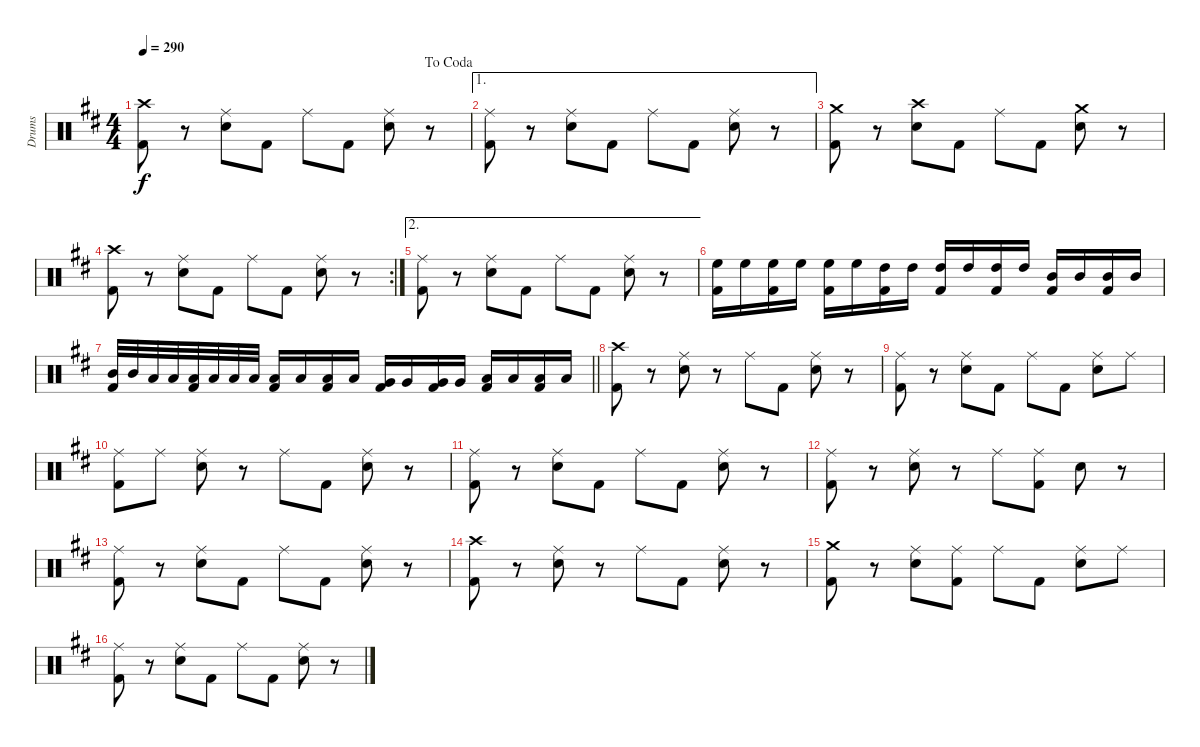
\track ("Drums" "Drums") {instrument percussion}
\staff {score}
\articulation defaults
\ts (4 4)
\jump dacoda
\tempo 290
\clef neutral
\ks d
("Crash high (hit)" "Kick (hit) 2").8{dy f} r.8 ("Ride (middle)" "Electric Snare (hit)").8 "Kick (hit) 2".8 "Ride (middle)".8 "Kick (hit) 2".8 ("Ride (middle)" "Electric Snare (hit)").8 r.8 |
\ae 1
("Ride (middle)" "Kick (hit) 2").8 r.8 ("Ride (middle)" "Electric Snare (hit)").8 "Kick (hit) 2".8 "Ride (middle)".8 "Kick (hit) 2".8 ("Ride (middle)" "Electric Snare (hit)").8 r.8 |
("Crash medium (hit)" "Kick (hit) 2").8 r.8 ("Crash high (hit)" "Electric Snare (hit)").8 "Kick (hit) 2".8 "Ride (middle)".8 "Kick (hit) 2".8 ("Crash medium (hit)" "Electric Snare (hit)").8 r.8 |
\rc 2
("Crash high (hit)" "Kick (hit) 2").8 r.8 ("Ride (middle)" "Electric Snare (hit)").8 "Kick (hit) 2".8 "Ride (middle)".8 "Kick (hit) 2".8 ("Ride (middle)" "Electric Snare (hit)").8 r.8 |
\ae 2
("Ride (middle)" "Kick (hit) 2").8 r.8 ("Ride (middle)" "Electric Snare (hit)").8 "Kick (hit) 2".8 "Ride (middle)".8 "Kick (hit) 2".8 ("Ride (middle)" "Electric Snare (hit)").8 r.8 |
("High Floor Tom (hit)" "Kick (hit) 2").16 "High Floor Tom (hit)".16 ("High Floor Tom (hit)" "Kick (hit) 2").16 "High Floor Tom (hit)".16 ("High Floor Tom (hit)" "Kick (hit) 2").16 "High Floor Tom (hit)".16 ("High Tom (hit)" "Kick (hit) 2").16 "High Tom (hit)".16 ("High Tom (hit)" "Kick (hit) 2").16 "High Tom (hit)".16 ("High Tom (hit)" "Kick (hit) 2").16 "High Tom (hit)".16 ("Mid Tom (hit)" "Kick (hit) 2").16 "Mid Tom (hit)".16 ("Mid Tom (hit)" "Kick (hit) 2").16 "Mid Tom (hit)".16 |
\barLineRight lightlight
("Mid Tom (hit)" "Kick (hit) 2").32 "Mid Tom (hit)".32 "Low Tom (hit)".32 "Low Tom (hit)".32 ("Low Tom (hit)" "Kick (hit) 2").32 "Low Tom (hit)".32 "Low Tom (hit)".32 "Low Tom (hit)".32 ("Low Tom (hit)" "Kick (hit) 2").16 "Low Tom (hit)".16 ("Low Tom (hit)" "Kick (hit) 2").16 "Low Tom (hit)".16 ("Very Low Tom (hit)" "Kick (hit) 2").16 "Very Low Tom (hit)".16 ("Very Low Tom (hit)" "Kick (hit) 2").16 "Very Low Tom (hit)".16 ("Low Floor Tom (hit)" "Kick (hit) 2").16 "Low Floor Tom (hit)".16 ("Low Floor Tom (hit)" "Kick (hit) 2").16 "Low Floor Tom (hit)".16 |
("Crash high (hit)" "Kick (hit) 2").8 r.8 ("Ride (middle)" "Electric Snare (hit)").8 r.8 "Ride (middle)".8 "Kick (hit) 2".8 ("Ride (middle)" "Electric Snare (hit)").8 r.8 |
("Ride (middle)" "Kick (hit) 2").8 r.8 ("Ride (middle)" "Electric Snare (hit)").8 "Kick (hit) 2".8 "Ride (middle)".8 "Kick (hit) 2".8 ("Ride (middle)" "Electric Snare (hit)").8 "Ride (middle)".8 |
("Ride (middle)" "Kick (hit) 2").8 "Ride (middle)".8 ("Ride (middle)" "Electric Snare (hit)").8 r.8 "Ride (middle)".8 "Kick (hit) 2".8 ("Ride (middle)" "Electric Snare (hit)").8 r.8 |
("Ride (middle)" "Kick (hit) 2").8 r.8 ("Ride (middle)" "Electric Snare (hit)").8 "Kick (hit) 2".8 "Ride (middle)".8 "Kick (hit) 2".8 ("Ride (middle)" "Electric Snare (hit)").8 r.8 |
("Ride (middle)" "Kick (hit) 2").8 r.8 ("Ride (middle)" "Electric Snare (hit)").8 r.8 "Ride (middle)".8 ("Ride (middle)" "Kick (hit) 2").8 "Electric Snare (hit)".8 r.8 |
("Ride (middle)" "Kick (hit) 2").8 r.8 ("Ride (middle)" "Electric Snare (hit)").8 "Kick (hit) 2".8 "Ride (middle)".8 "Kick (hit) 2".8 ("Ride (middle)" "Electric Snare (hit)").8 r.8 |
("Crash high (hit)" "Kick (hit) 2").8 r.8 ("Ride (middle)" "Electric Snare (hit)").8 r.8 "Ride (middle)".8 "Kick (hit) 2".8 ("Ride (middle)" "Electric Snare (hit)").8 r.8 |
("Crash medium (hit)" "Kick (hit) 2").8 r.8 ("Ride (middle)" "Electric Snare (hit)").8 ("Ride (middle)" "Kick (hit) 2").8 "Ride (middle)".8 "Kick (hit) 2".8 ("Ride (middle)" "Electric Snare (hit)").8 "Ride (middle)".8 |
("Ride (middle)" "Kick (hit) 2").8 r.8 ("Ride (middle)" "Electric Snare (hit)").8 "Kick (hit) 2".8 "Ride (middle)".8 "Kick (hit) 2".8 ("Ride (middle)" "Electric Snare (hit)").8 r.8
